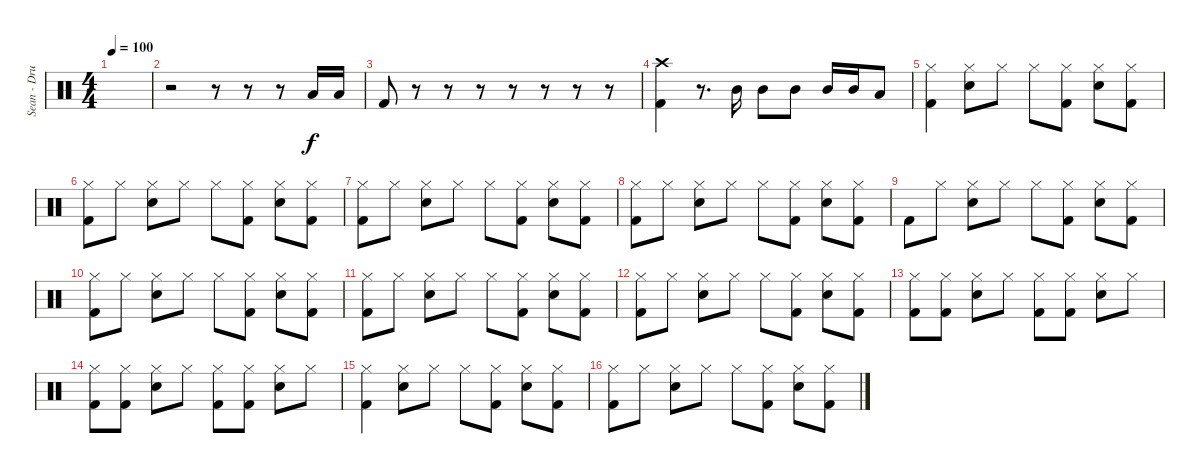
\track ("Sean - Drums" "Sean - Dru") {instrument percussion}
\staff {score}
\articulation defaults
\ts (4 4)
\tempo 100
\clef neutral
\ks c
|
r.2 r.8 r.8 r.8 "Low Tom (hit)".16 "Low Tom (hit)".16 |
"Kick (hit) 2".8 r.8 r.8 r.8 r.8 r.8 r.8 r.8 |
("Crash high (hit)" "Kick (hit) 2").4 r.8{d} "Mid Tom (hit)".16 "Mid Tom (hit)".8 "Mid Tom (hit)".8 "Mid Tom (hit)".16 "Mid Tom (hit)".16 "Low Tom (hit)".8 |
("Hi-Hat (closed)" "Kick (hit) 2").4 ("Hi-Hat (closed)" "Electric Snare (hit)").8 "Hi-Hat (closed)".8 "Hi-Hat (closed)".8 ("Hi-Hat (closed)" "Kick (hit) 2").8 ("Hi-Hat (closed)" "Electric Snare (hit)").8 ("Hi-Hat (closed)" "Kick (hit) 2").8 |
("Hi-Hat (closed)" "Kick (hit) 2").8 "Hi-Hat (closed)".8 ("Hi-Hat (closed)" "Electric Snare (hit)").8 "Hi-Hat (closed)".8 "Hi-Hat (closed)".8 ("Hi-Hat (closed)" "Kick (hit) 2").8 ("Hi-Hat (closed)" "Electric Snare (hit)").8 ("Hi-Hat (closed)" "Kick (hit) 2").8 |
("Hi-Hat (closed)" "Kick (hit) 2").8 "Hi-Hat (closed)".8 ("Hi-Hat (closed)" "Electric Snare (hit)").8 "Hi-Hat (closed)".8 "Hi-Hat (closed)".8 ("Hi-Hat (closed)" "Kick (hit) 2").8 ("Hi-Hat (closed)" "Electric Snare (hit)").8 ("Hi-Hat (closed)" "Kick (hit) 2").8 |
("Hi-Hat (closed)" "Kick (hit) 2").8 "Hi-Hat (closed)".8 ("Hi-Hat (closed)" "Electric Snare (hit)").8 "Hi-Hat (closed)".8 "Hi-Hat (closed)".8 ("Hi-Hat (closed)" "Kick (hit) 2").8 ("Hi-Hat (closed)" "Electric Snare (hit)").8 ("Hi-Hat (closed)" "Kick (hit) 2").8 |
"Kick (hit) 2".8 "Hi-Hat (closed)".8 ("Hi-Hat (closed)" "Electric Snare (hit)").8 "Hi-Hat (closed)".8 "Hi-Hat (closed)".8 ("Hi-Hat (closed)" "Kick (hit) 2").8 ("Hi-Hat (closed)" "Electric Snare (hit)").8 ("Hi-Hat (closed)" "Kick (hit) 2").8 |
("Hi-Hat (closed)" "Kick (hit) 2").8 "Hi-Hat (closed)".8 ("Hi-Hat (closed)" "Electric Snare (hit)").8 "Hi-Hat (closed)".8 "Hi-Hat (closed)".8 ("Hi-Hat (closed)" "Kick (hit) 2").8 ("Hi-Hat (closed)" "Electric Snare (hit)").8 ("Hi-Hat (closed)" "Kick (hit) 2").8 |
("Hi-Hat (closed)" "Kick (hit) 2").8 "Hi-Hat (closed)".8 ("Hi-Hat (closed)" "Electric Snare (hit)").8 "Hi-Hat (closed)".8 "Hi-Hat (closed)".8 ("Hi-Hat (closed)" "Kick (hit) 2").8 ("Hi-Hat (closed)" "Electric Snare (hit)").8 ("Hi-Hat (closed)" "Kick (hit) 2").8 |
("Hi-Hat (closed)" "Kick (hit) 2").8 "Hi-Hat (closed)".8 ("Hi-Hat (closed)" "Electric Snare (hit)").8 "Hi-Hat (closed)".8 "Hi-Hat (closed)".8 ("Hi-Hat (closed)" "Kick (hit) 2").8 ("Hi-Hat (closed)" "Electric Snare (hit)").8 ("Hi-Hat (closed)" "Kick (hit) 2").8 |
("Hi-Hat (closed)" "Kick (hit) 2").8 ("Hi-Hat (closed)" "Kick (hit) 2").8 ("Hi-Hat (closed)" "Electric Snare (hit)").8 "Hi-Hat (closed)".8 ("Hi-Hat (closed)" "Kick (hit) 2").8 ("Hi-Hat (closed)" "Kick (hit) 2").8 ("Hi-Hat (closed)" "Electric Snare (hit)").8 "Hi-Hat (closed)".8 |
("Hi-Hat (closed)" "Kick (hit) 2").8 ("Hi-Hat (closed)" "Kick (hit) 2").8 ("Hi-Hat (closed)" "Electric Snare (hit)").8 "Hi-Hat (closed)".8 ("Hi-Hat (closed)" "Kick (hit) 2").8 ("Hi-Hat (closed)" "Kick (hit) 2").8 ("Hi-Hat (closed)" "Electric Snare (hit)").8 "Hi-Hat (closed)".8 |
("Hi-Hat (closed)" "Kick (hit) 2").4 ("Hi-Hat (closed)" "Electric Snare (hit)").8 "Hi-Hat (closed)".8 "Hi-Hat (closed)".8 ("Hi-Hat (closed)" "Kick (hit) 2").8 ("Hi-Hat (closed)" "Electric Snare (hit)").8 ("Hi-Hat (closed)" "Kick (hit) 2").8 |
("Hi-Hat (closed)" "Kick (hit) 2").8 "Hi-Hat (closed)".8 ("Hi-Hat (closed)" "Electric Snare (hit)").8 "Hi-Hat (closed)".8 "Hi-Hat (closed)".8 ("Hi-Hat (closed)" "Kick (hit) 2").8 ("Hi-Hat (closed)" "Electric Snare (hit)").8 ("Hi-Hat (closed)" "Kick (hit) 2").8
